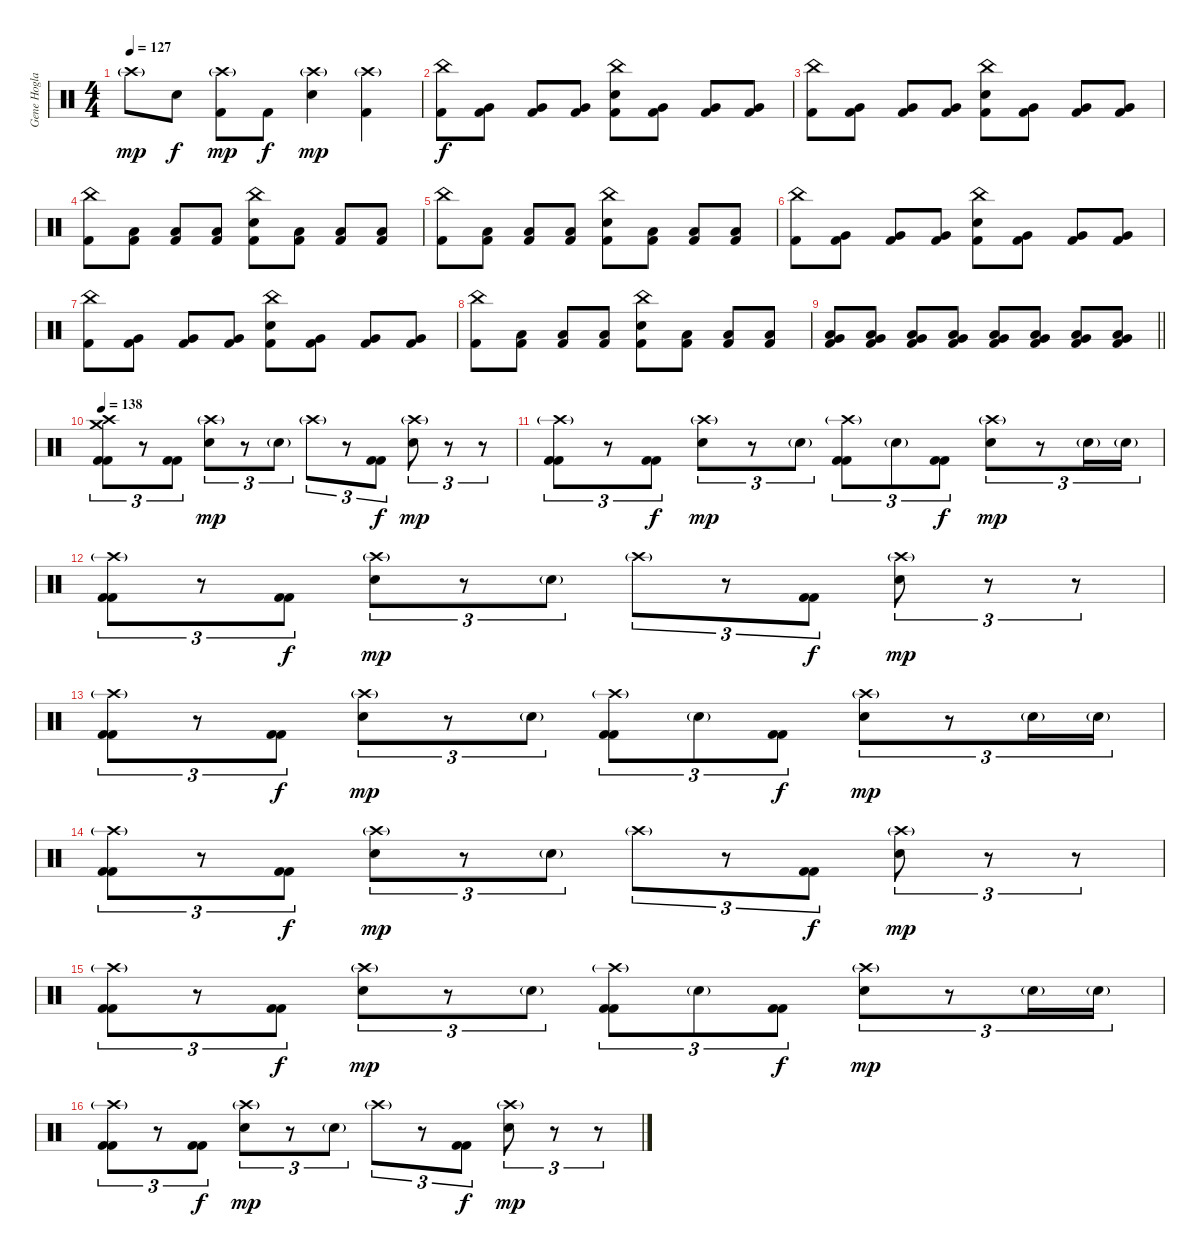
\track ("Gene Hoglan" "Gene Hogla") {instrument percussion}
\staff {score}
\articulation defaults
\ts (4 4)
\tempo 127
\clef neutral
\ks c "Crash high (hit)"{g}.8{dy mp} "Electric Snare (hit)".8{dy f}
("Crash high (hit)"{g} "Kick (hit) 2").8{dy mp} "Kick (hit) 2".8{dy f} ("Crash high (hit)"{g} "Electric Snare (hit)").4{dy mp} ("Crash high (hit)"{g} "Kick (hit) 2").4 |
("China (hit)" "Kick (hit) 2").8{dy f} ("Very Low Tom (hit)" "Kick (hit) 2").8 ("Very Low Tom (hit)" "Kick (hit) 2").8 ("Very Low Tom (hit)" "Kick (hit) 2").8 ("China (hit)" "Electric Snare (hit)" "Kick (hit) 2").8 ("Very Low Tom (hit)" "Kick (hit) 2").8 ("Very Low Tom (hit)" "Kick (hit) 2").8 ("Very Low Tom (hit)" "Kick (hit) 2").8 |
("China (hit)" "Kick (hit) 2").8 ("Very Low Tom (hit)" "Kick (hit) 2").8 ("Very Low Tom (hit)" "Kick (hit) 2").8 ("Very Low Tom (hit)" "Kick (hit) 2").8 ("China (hit)" "Electric Snare (hit)" "Kick (hit) 2").8 ("Very Low Tom (hit)" "Kick (hit) 2").8 ("Very Low Tom (hit)" "Kick (hit) 2").8 ("Very Low Tom (hit)" "Kick (hit) 2").8 |
("China (hit)" "Kick (hit) 2").8 ("Low Floor Tom (hit)" "Kick (hit) 2").8 ("Low Floor Tom (hit)" "Kick (hit) 2").8 ("Low Floor Tom (hit)" "Kick (hit) 2").8 ("China (hit)" "Electric Snare (hit)" "Kick (hit) 2").8 ("Low Floor Tom (hit)" "Kick (hit) 2").8 ("Low Floor Tom (hit)" "Kick (hit) 2").8 ("Low Floor Tom (hit)" "Kick (hit) 2").8 |
("China (hit)" "Kick (hit) 2").8 ("Low Floor Tom (hit)" "Kick (hit) 2").8 ("Low Floor Tom (hit)" "Kick (hit) 2").8 ("Low Floor Tom (hit)" "Kick (hit) 2").8 ("China (hit)" "Electric Snare (hit)" "Kick (hit) 2").8 ("Low Floor Tom (hit)" "Kick (hit) 2").8 ("Low Floor Tom (hit)" "Kick (hit) 2").8 ("Low Floor Tom (hit)" "Kick (hit) 2").8 |
("China (hit)" "Kick (hit) 2").8 ("Very Low Tom (hit)" "Kick (hit) 2").8 ("Very Low Tom (hit)" "Kick (hit) 2").8 ("Very Low Tom (hit)" "Kick (hit) 2").8 ("China (hit)" "Electric Snare (hit)" "Kick (hit) 2").8 ("Very Low Tom (hit)" "Kick (hit) 2").8 ("Very Low Tom (hit)" "Kick (hit) 2").8 ("Very Low Tom (hit)" "Kick (hit) 2").8 |
("China (hit)" "Kick (hit) 2").8 ("Very Low Tom (hit)" "Kick (hit) 2").8 ("Very Low Tom (hit)" "Kick (hit) 2").8 ("Very Low Tom (hit)" "Kick (hit) 2").8 ("China (hit)" "Electric Snare (hit)" "Kick (hit) 2").8 ("Very Low Tom (hit)" "Kick (hit) 2").8 ("Very Low Tom (hit)" "Kick (hit) 2").8 ("Very Low Tom (hit)" "Kick (hit) 2").8 |
("China (hit)" "Kick (hit) 2").8 ("Low Floor Tom (hit)" "Kick (hit) 2").8 ("Low Floor Tom (hit)" "Kick (hit) 2").8 ("Low Floor Tom (hit)" "Kick (hit) 2").8 ("China (hit)" "Electric Snare (hit)" "Kick (hit) 2").8 ("Low Floor Tom (hit)" "Kick (hit) 2").8 ("Low Floor Tom (hit)" "Kick (hit) 2").8 ("Low Floor Tom (hit)" "Kick (hit) 2").8 |
\barLineRight lightlight
("Very Low Tom (hit)" "Low Floor Tom (hit)" "Kick (hit) 2").8 ("Very Low Tom (hit)" "Low Floor Tom (hit)" "Kick (hit) 2").8 ("Very Low Tom (hit)" "Low Floor Tom (hit)" "Kick (hit) 2").8 ("Very Low Tom (hit)" "Low Floor Tom (hit)" "Kick (hit) 2").8 ("Very Low Tom (hit)" "Low Floor Tom (hit)" "Kick (hit) 2").8 ("Very Low Tom (hit)" "Low Floor Tom (hit)" "Kick (hit) 2").8 ("Very Low Tom (hit)" "Low Floor Tom (hit)" "Kick (hit) 2").8 ("Very Low Tom (hit)" "Low Floor Tom (hit)" "Kick (hit) 2").8 |
\tempo 138
("Crash high (hit)" "Crash medium (hit)" "Kick (hit) 2" "Kick (hit) 2").8{tu (3 2)} r.8{tu (3 2)} ("Kick (hit) 2" "Kick (hit) 2").8{tu (3 2)} ("Crash high (hit)"{g} "Electric Snare (hit)").8{tu (3 2) dy mp} r.8{tu (3 2)} "Electric Snare (hit)"{g}.8{tu (3 2)} "Crash high (hit)"{g}.8{tu (3 2)} r.8{tu (3 2)} ("Kick (hit) 2" "Kick (hit) 2").8{tu (3 2) dy f} ("Crash high (hit)"{g} "Electric Snare (hit)").8{tu (3 2) dy mp} r.8{tu (3 2)} r.8{tu (3 2)} |
("Crash high (hit)"{g} "Kick (hit) 2" "Kick (hit) 2").8{tu (3 2)} r.8{tu (3 2)} ("Kick (hit) 2" "Kick (hit) 2").8{tu (3 2) dy f} ("Crash high (hit)"{g} "Electric Snare (hit)").8{tu (3 2) dy mp} r.8{tu (3 2)} "Electric Snare (hit)"{g}.8{tu (3 2)} ("Crash high (hit)"{g} "Kick (hit) 2" "Kick (hit) 2").8{tu (3 2)} "Electric Snare (hit)"{g}.8{tu (3 2)} ("Kick (hit) 2" "Kick (hit) 2").8{tu (3 2) dy f} ("Crash high (hit)"{g} "Electric Snare (hit)").8{tu (3 2) dy mp} r.8{tu (3 2)} "Electric Snare (hit)"{g}.16{tu (3 2)} "Electric Snare (hit)"{g}.16{tu (3 2)} |
("Crash high (hit)"{g} "Kick (hit) 2" "Kick (hit) 2").8{tu (3 2)} r.8{tu (3 2)} ("Kick (hit) 2" "Kick (hit) 2").8{tu (3 2) dy f} ("Crash high (hit)"{g} "Electric Snare (hit)").8{tu (3 2) dy mp} r.8{tu (3 2)} "Electric Snare (hit)"{g}.8{tu (3 2)} "Crash high (hit)"{g}.8{tu (3 2)} r.8{tu (3 2)} ("Kick (hit) 2" "Kick (hit) 2").8{tu (3 2) dy f} ("Crash high (hit)"{g} "Electric Snare (hit)").8{tu (3 2) dy mp} r.8{tu (3 2)} r.8{tu (3 2)} |
("Crash high (hit)"{g} "Kick (hit) 2" "Kick (hit) 2").8{tu (3 2)} r.8{tu (3 2)} ("Kick (hit) 2" "Kick (hit) 2").8{tu (3 2) dy f} ("Crash high (hit)"{g} "Electric Snare (hit)").8{tu (3 2) dy mp} r.8{tu (3 2)} "Electric Snare (hit)"{g}.8{tu (3 2)} ("Crash high (hit)"{g} "Kick (hit) 2" "Kick (hit) 2").8{tu (3 2)} "Electric Snare (hit)"{g}.8{tu (3 2)} ("Kick (hit) 2" "Kick (hit) 2").8{tu (3 2) dy f} ("Crash high (hit)"{g} "Electric Snare (hit)").8{tu (3 2) dy mp} r.8{tu (3 2)} "Electric Snare (hit)"{g}.16{tu (3 2)} "Electric Snare (hit)"{g}.16{tu (3 2)} |
("Crash high (hit)"{g} "Kick (hit) 2" "Kick (hit) 2").8{tu (3 2)} r.8{tu (3 2)} ("Kick (hit) 2" "Kick (hit) 2").8{tu (3 2) dy f} ("Crash high (hit)"{g} "Electric Snare (hit)").8{tu (3 2) dy mp} r.8{tu (3 2)} "Electric Snare (hit)"{g}.8{tu (3 2)} "Crash high (hit)"{g}.8{tu (3 2)} r.8{tu (3 2)} ("Kick (hit) 2" "Kick (hit) 2").8{tu (3 2) dy f} ("Crash high (hit)"{g} "Electric Snare (hit)").8{tu (3 2) dy mp} r.8{tu (3 2)} r.8{tu (3 2)} |
("Crash high (hit)"{g} "Kick (hit) 2" "Kick (hit) 2").8{tu (3 2)} r.8{tu (3 2)} ("Kick (hit) 2" "Kick (hit) 2").8{tu (3 2) dy f} ("Crash high (hit)"{g} "Electric Snare (hit)").8{tu (3 2) dy mp} r.8{tu (3 2)} "Electric Snare (hit)"{g}.8{tu (3 2)} ("Crash high (hit)"{g} "Kick (hit) 2" "Kick (hit) 2").8{tu (3 2)} "Electric Snare (hit)"{g}.8{tu (3 2)} ("Kick (hit) 2" "Kick (hit) 2").8{tu (3 2) dy f} ("Crash high (hit)"{g} "Electric Snare (hit)").8{tu (3 2) dy mp} r.8{tu (3 2)} "Electric Snare (hit)"{g}.16{tu (3 2)} "Electric Snare (hit)"{g}.16{tu (3 2)} |
("Crash high (hit)"{g} "Kick (hit) 2" "Kick (hit) 2").8{tu (3 2)} r.8{tu (3 2)} ("Kick (hit) 2" "Kick (hit) 2").8{tu (3 2) dy f} ("Crash high (hit)"{g} "Electric Snare (hit)").8{tu (3 2) dy mp} r.8{tu (3 2)} "Electric Snare (hit)"{g}.8{tu (3 2)} "Crash high (hit)"{g}.8{tu (3 2)} r.8{tu (3 2)} ("Kick (hit) 2" "Kick (hit) 2").8{tu (3 2) dy f} ("Crash high (hit)"{g} "Electric Snare (hit)").8{tu (3 2) dy mp} r.8{tu (3 2)} r.8{tu (3 2)}
